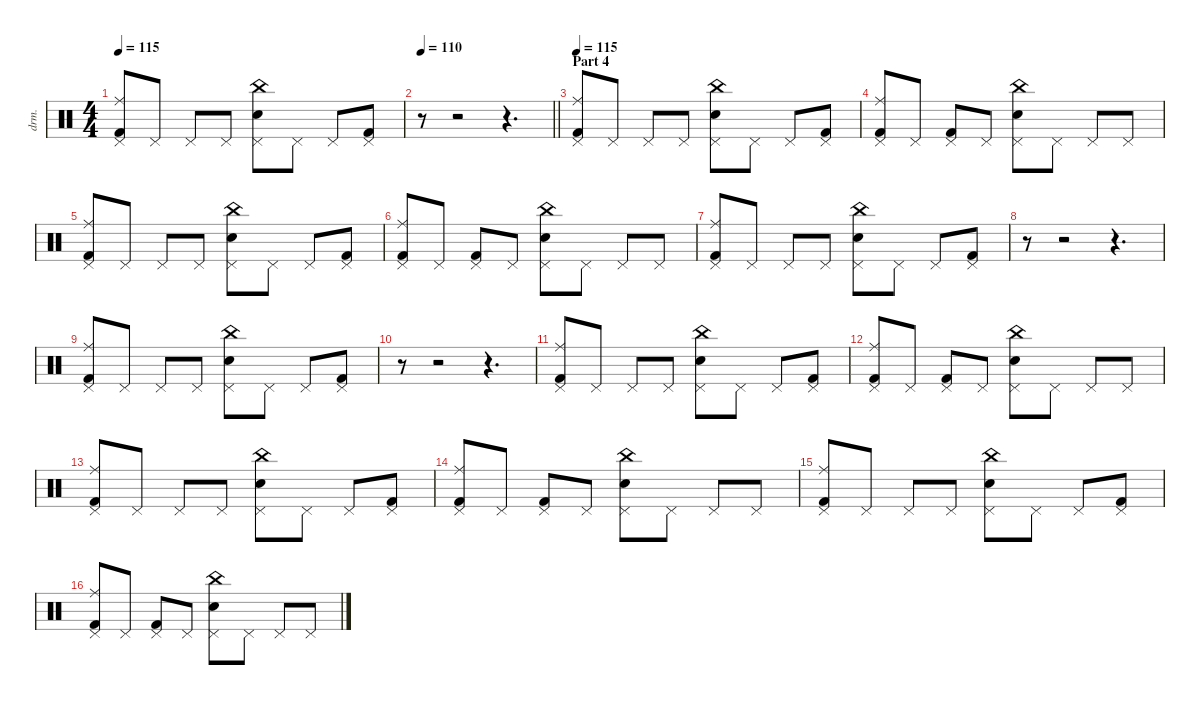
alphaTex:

\defaultSystemsLayout 4
\hideDynamics
\bracketExtendMode nobrackets
\otherSystemsTrackNameOrientation horizontal
\track ("Drums" "drm.") {instrument percussion}
\staff {score}
\articulation defaults
\ts (4 4)
\tempo 115
\clef neutral
\ks c
("Pedal Hi-Hat (hit)" "Ride (middle)" "Kick (hit) 2").8{dy f} "Pedal Hi-Hat (hit)".8 "Pedal Hi-Hat (hit)".8 "Pedal Hi-Hat (hit)".8 ("Pedal Hi-Hat (hit)" "Snare (hit) 2" "China (hit)").8 "Pedal Hi-Hat (hit)".8 "Pedal Hi-Hat (hit)".8 ("Pedal Hi-Hat (hit)" "Kick (hit) 2").8 |
\tempo 110
\barLineRight lightlight
r.8 r.2 r.4{d} |
\section ("" "Part 4")
\tempo 115
("Pedal Hi-Hat (hit)" "Ride (middle)" "Kick (hit) 2").8 "Pedal Hi-Hat (hit)".8 "Pedal Hi-Hat (hit)".8 "Pedal Hi-Hat (hit)".8 ("Pedal Hi-Hat (hit)" "Snare (hit) 2" "China (hit)").8 "Pedal Hi-Hat (hit)".8 "Pedal Hi-Hat (hit)".8 ("Pedal Hi-Hat (hit)" "Kick (hit) 2").8 |
("Pedal Hi-Hat (hit)" "Ride (middle)" "Kick (hit) 2").8 "Pedal Hi-Hat (hit)".8 ("Pedal Hi-Hat (hit)" "Kick (hit) 2").8 "Pedal Hi-Hat (hit)".8 ("Pedal Hi-Hat (hit)" "Snare (hit) 2" "China (hit)").8 "Pedal Hi-Hat (hit)".8 "Pedal Hi-Hat (hit)".8 "Pedal Hi-Hat (hit)".8 |
("Pedal Hi-Hat (hit)" "Ride (middle)" "Kick (hit) 2").8 "Pedal Hi-Hat (hit)".8 "Pedal Hi-Hat (hit)".8 "Pedal Hi-Hat (hit)".8 ("Pedal Hi-Hat (hit)" "Snare (hit) 2" "China (hit)").8 "Pedal Hi-Hat (hit)".8 "Pedal Hi-Hat (hit)".8 ("Pedal Hi-Hat (hit)" "Kick (hit) 2").8 |
("Pedal Hi-Hat (hit)" "Ride (middle)" "Kick (hit) 2").8 "Pedal Hi-Hat (hit)".8 ("Pedal Hi-Hat (hit)" "Kick (hit) 2").8 "Pedal Hi-Hat (hit)".8 ("Pedal Hi-Hat (hit)" "Snare (hit) 2" "China (hit)").8 "Pedal Hi-Hat (hit)".8 "Pedal Hi-Hat (hit)".8 "Pedal Hi-Hat (hit)".8 |
("Pedal Hi-Hat (hit)" "Ride (middle)" "Kick (hit) 2").8 "Pedal Hi-Hat (hit)".8 "Pedal Hi-Hat (hit)".8 "Pedal Hi-Hat (hit)".8 ("Pedal Hi-Hat (hit)" "Snare (hit) 2" "China (hit)").8 "Pedal Hi-Hat (hit)".8 "Pedal Hi-Hat (hit)".8 ("Pedal Hi-Hat (hit)" "Kick (hit) 2").8 |
r.8 r.2 r.4{d} |
("Pedal Hi-Hat (hit)" "Ride (middle)" "Kick (hit) 2").8 "Pedal Hi-Hat (hit)".8 "Pedal Hi-Hat (hit)".8 "Pedal Hi-Hat (hit)".8 ("Pedal Hi-Hat (hit)" "Snare (hit) 2" "China (hit)").8 "Pedal Hi-Hat (hit)".8 "Pedal Hi-Hat (hit)".8 ("Pedal Hi-Hat (hit)" "Kick (hit) 2").8 |
r.8 r.2 r.4{d} |
("Pedal Hi-Hat (hit)" "Ride (middle)" "Kick (hit) 2").8 "Pedal Hi-Hat (hit)".8 "Pedal Hi-Hat (hit)".8 "Pedal Hi-Hat (hit)".8 ("Pedal Hi-Hat (hit)" "Snare (hit) 2" "China (hit)").8 "Pedal Hi-Hat (hit)".8 "Pedal Hi-Hat (hit)".8 ("Pedal Hi-Hat (hit)" "Kick (hit) 2").8 |
("Pedal Hi-Hat (hit)" "Ride (middle)" "Kick (hit) 2").8 "Pedal Hi-Hat (hit)".8 ("Pedal Hi-Hat (hit)" "Kick (hit) 2").8 "Pedal Hi-Hat (hit)".8 ("Pedal Hi-Hat (hit)" "Snare (hit) 2" "China (hit)").8 "Pedal Hi-Hat (hit)".8 "Pedal Hi-Hat (hit)".8 "Pedal Hi-Hat (hit)".8 |
("Pedal Hi-Hat (hit)" "Ride (middle)" "Kick (hit) 2").8 "Pedal Hi-Hat (hit)".8 "Pedal Hi-Hat (hit)".8 "Pedal Hi-Hat (hit)".8 ("Pedal Hi-Hat (hit)" "Snare (hit) 2" "China (hit)").8 "Pedal Hi-Hat (hit)".8 "Pedal Hi-Hat (hit)".8 ("Pedal Hi-Hat (hit)" "Kick (hit) 2").8 |
("Pedal Hi-Hat (hit)" "Ride (middle)" "Kick (hit) 2").8 "Pedal Hi-Hat (hit)".8 ("Pedal Hi-Hat (hit)" "Kick (hit) 2").8 "Pedal Hi-Hat (hit)".8 ("Pedal Hi-Hat (hit)" "Snare (hit) 2" "China (hit)").8 "Pedal Hi-Hat (hit)".8 "Pedal Hi-Hat (hit)".8 "Pedal Hi-Hat (hit)".8 |
("Pedal Hi-Hat (hit)" "Ride (middle)" "Kick (hit) 2").8 "Pedal Hi-Hat (hit)".8 "Pedal Hi-Hat (hit)".8 "Pedal Hi-Hat (hit)".8 ("Pedal Hi-Hat (hit)" "Snare (hit) 2" "China (hit)").8 "Pedal Hi-Hat (hit)".8 "Pedal Hi-Hat (hit)".8 ("Pedal Hi-Hat (hit)" "Kick (hit) 2").8 |
("Pedal Hi-Hat (hit)" "Ride (middle)" "Kick (hit) 2").8 "Pedal Hi-Hat (hit)".8 ("Pedal Hi-Hat (hit)" "Kick (hit) 2").8 "Pedal Hi-Hat (hit)".8 ("Pedal Hi-Hat (hit)" "Snare (hit) 2" "China (hit)").8 "Pedal Hi-Hat (hit)".8 "Pedal Hi-Hat (hit)".8 "Pedal Hi-Hat (hit)".8
